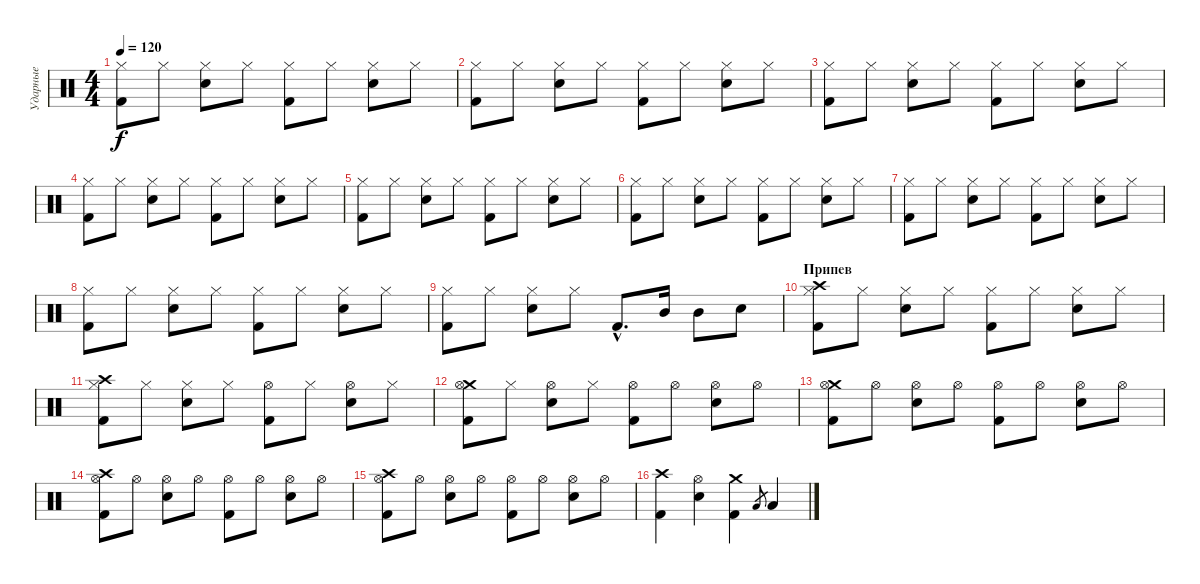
\track ("Ударные" "Ударные") {instrument percussion}
\staff {score}
\articulation defaults
\ts (4 4)
\tempo 120
\clef neutral
\ks c
("Hi-Hat (closed)" "Kick (hit) 2").8{dy f} "Hi-Hat (closed)".8 ("Hi-Hat (closed)" "Snare (hit) 2").8 "Hi-Hat (closed)".8 ("Hi-Hat (closed)" "Kick (hit) 2").8 "Hi-Hat (closed)".8 ("Hi-Hat (closed)" "Snare (hit) 2").8 "Hi-Hat (closed)".8 |
("Hi-Hat (closed)" "Kick (hit) 2").8 "Hi-Hat (closed)".8 ("Hi-Hat (closed)" "Snare (hit) 2").8 "Hi-Hat (closed)".8 ("Hi-Hat (closed)" "Kick (hit) 2").8 "Hi-Hat (closed)".8 ("Hi-Hat (closed)" "Snare (hit) 2").8 "Hi-Hat (closed)".8 |
("Hi-Hat (closed)" "Kick (hit) 2").8 "Hi-Hat (closed)".8 ("Hi-Hat (closed)" "Snare (hit) 2").8 "Hi-Hat (closed)".8 ("Hi-Hat (closed)" "Kick (hit) 2").8 "Hi-Hat (closed)".8 ("Hi-Hat (closed)" "Snare (hit) 2").8 "Hi-Hat (closed)".8 |
("Hi-Hat (closed)" "Kick (hit) 2").8 "Hi-Hat (closed)".8 ("Hi-Hat (closed)" "Snare (hit) 2").8 "Hi-Hat (closed)".8 ("Hi-Hat (closed)" "Kick (hit) 2").8 "Hi-Hat (closed)".8 ("Hi-Hat (closed)" "Snare (hit) 2").8 "Hi-Hat (closed)".8 |
("Hi-Hat (closed)" "Kick (hit) 2").8 "Hi-Hat (closed)".8 ("Hi-Hat (closed)" "Snare (hit) 2").8 "Hi-Hat (closed)".8 ("Hi-Hat (closed)" "Kick (hit) 2").8 "Hi-Hat (closed)".8 ("Hi-Hat (closed)" "Snare (hit) 2").8 "Hi-Hat (closed)".8 |
("Hi-Hat (closed)" "Kick (hit) 2").8 "Hi-Hat (closed)".8 ("Hi-Hat (closed)" "Snare (hit) 2").8 "Hi-Hat (closed)".8 ("Hi-Hat (closed)" "Kick (hit) 2").8 "Hi-Hat (closed)".8 ("Hi-Hat (closed)" "Snare (hit) 2").8 "Hi-Hat (closed)".8 |
("Hi-Hat (closed)" "Kick (hit) 2").8 "Hi-Hat (closed)".8 ("Hi-Hat (closed)" "Snare (hit) 2").8 "Hi-Hat (closed)".8 ("Hi-Hat (closed)" "Kick (hit) 2").8 "Hi-Hat (closed)".8 ("Hi-Hat (closed)" "Snare (hit) 2").8 "Hi-Hat (closed)".8 |
("Hi-Hat (closed)" "Kick (hit) 2").8 "Hi-Hat (closed)".8 ("Hi-Hat (closed)" "Snare (hit) 2").8 "Hi-Hat (closed)".8 ("Hi-Hat (closed)" "Kick (hit) 2").8 "Hi-Hat (closed)".8 ("Hi-Hat (closed)" "Snare (hit) 2").8 "Hi-Hat (closed)".8 |
("Hi-Hat (closed)" "Kick (hit) 2").8 "Hi-Hat (closed)".8 ("Hi-Hat (closed)" "Snare (hit) 2").8 "Hi-Hat (closed)".8 "Kick (hit) 2"{hac}.8{d} "Mid Tom (hit)".16 "Mid Tom (hit)".8 "Snare (hit) 2".8 |
\section ("" "Припев")
("Crash high (hit)" "Hi-Hat (closed)" "Kick (hit) 2").8 "Hi-Hat (closed)".8 ("Hi-Hat (closed)" "Snare (hit) 2").8 "Hi-Hat (closed)".8 ("Hi-Hat (closed)" "Kick (hit) 2").8 "Hi-Hat (closed)".8 ("Hi-Hat (closed)" "Snare (hit) 2").8 "Hi-Hat (closed)".8 |
("Crash high (hit)" "Hi-Hat (closed)" "Kick (hit) 2").8 "Hi-Hat (closed)".8 ("Hi-Hat (closed)" "Snare (hit) 2").8 "Hi-Hat (closed)".8 ("Hi-Hat (open)" "Kick (hit) 2").8 "Hi-Hat (closed)".8 ("Hi-Hat (open)" "Snare (hit) 2").8 "Hi-Hat (closed)".8 |
("Crash medium (hit)" "Hi-Hat (open)" "Kick (hit) 2").8 "Hi-Hat (closed)".8 ("Hi-Hat (open)" "Snare (hit) 2").8 "Hi-Hat (closed)".8 ("Hi-Hat (open)" "Kick (hit) 2").8 "Hi-Hat (open)".8 ("Hi-Hat (open)" "Snare (hit) 2").8 "Hi-Hat (open)".8 |
("Crash medium (hit)" "Hi-Hat (open)" "Kick (hit) 2").8 "Hi-Hat (open)".8 ("Hi-Hat (open)" "Snare (hit) 2").8 "Hi-Hat (open)".8 ("Hi-Hat (open)" "Kick (hit) 2").8 "Hi-Hat (open)".8 ("Hi-Hat (open)" "Snare (hit) 2").8 "Hi-Hat (open)".8 |
("Crash high (hit)" "Hi-Hat (open)" "Kick (hit) 2").8 "Hi-Hat (open)".8 ("Hi-Hat (open)" "Snare (hit) 2").8 "Hi-Hat (open)".8 ("Hi-Hat (open)" "Kick (hit) 2").8 "Hi-Hat (open)".8 ("Hi-Hat (open)" "Snare (hit) 2").8 "Hi-Hat (open)".8 |
("Crash high (hit)" "Hi-Hat (open)" "Kick (hit) 2").8 "Hi-Hat (open)".8 ("Hi-Hat (open)" "Snare (hit) 2").8 "Hi-Hat (open)".8 ("Hi-Hat (open)" "Kick (hit) 2").8 "Hi-Hat (open)".8 ("Hi-Hat (open)" "Snare (hit) 2").8 "Hi-Hat (open)".8 |
("Crash high (hit)" "Kick (hit) 2").4 ("Hi-Hat (open)" "Snare (hit) 2").4 ("Crash medium (hit)" "Kick (hit) 2").4 "Low Floor Tom (hit)".8{gr} "Low Floor Tom (hit)".4
